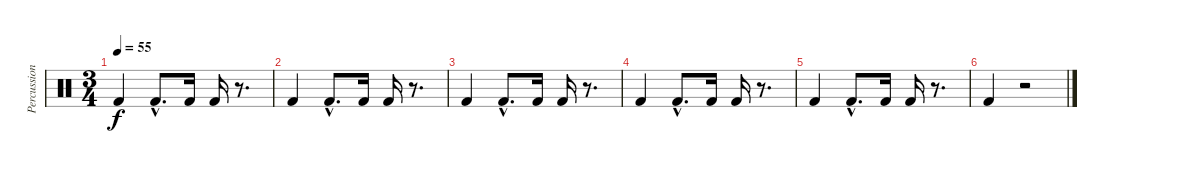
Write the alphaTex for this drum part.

\track ("Percussion" "Percussion") {instrument percussion}
\staff {score}
\articulation defaults
\ts (3 4)
\tempo 55
\clef neutral
\ks c "Kick (hit) 2".4{dy f} "Kick (hit) 2"{hac}.8{d} "Kick (hit) 2".16 "Kick (hit) 2".16
r.8{d} |
"Kick (hit) 2".4 "Kick (hit) 2"{hac}.8{d} "Kick (hit) 2".16 "Kick (hit) 2".16 r.8{d} |
"Kick (hit) 2".4 "Kick (hit) 2"{hac}.8{d} "Kick (hit) 2".16 "Kick (hit) 2".16 r.8{d} |
"Kick (hit) 2".4 "Kick (hit) 2"{hac}.8{d} "Kick (hit) 2".16 "Kick (hit) 2".16 r.8{d} |
"Kick (hit) 2".4 "Kick (hit) 2"{hac}.8{d} "Kick (hit) 2".16 "Kick (hit) 2".16 r.8{d} |
"Kick (hit) 2".4 r.2
